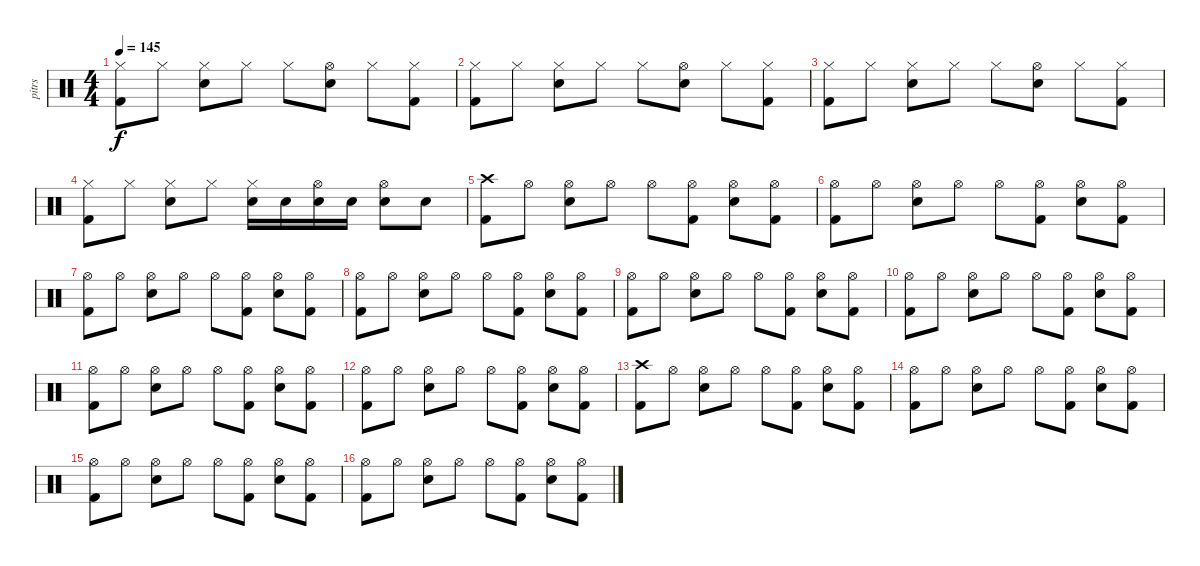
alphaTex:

\track ("pitrs" "pitrs") {instrument percussion}
\staff {score}
\articulation defaults
\ts (4 4)
\tempo 145
\clef neutral
\ks c
("Hi-Hat (closed)" "Kick (hit) 2").8{dy f} "Hi-Hat (closed)".8 ("Hi-Hat (closed)" "Snare (hit) 2").8 "Hi-Hat (closed)".8 "Hi-Hat (closed)".8 ("Hi-Hat (open)" "Snare (hit) 2").8 "Hi-Hat (closed)".8 ("Hi-Hat (closed)" "Kick (hit) 2").8 |
("Hi-Hat (closed)" "Kick (hit) 2").8 "Hi-Hat (closed)".8 ("Hi-Hat (closed)" "Snare (hit) 2").8 "Hi-Hat (closed)".8 "Hi-Hat (closed)".8 ("Hi-Hat (open)" "Snare (hit) 2").8 "Hi-Hat (closed)".8 ("Hi-Hat (closed)" "Kick (hit) 2").8 |
("Hi-Hat (closed)" "Kick (hit) 2").8 "Hi-Hat (closed)".8 ("Hi-Hat (closed)" "Snare (hit) 2").8 "Hi-Hat (closed)".8 "Hi-Hat (closed)".8 ("Hi-Hat (open)" "Snare (hit) 2").8 "Hi-Hat (closed)".8 ("Hi-Hat (closed)" "Kick (hit) 2").8 |
("Hi-Hat (closed)" "Kick (hit) 2").8 "Hi-Hat (closed)".8 ("Hi-Hat (closed)" "Snare (hit) 2").8 "Hi-Hat (closed)".8 ("Hi-Hat (closed)" "Snare (hit) 2").16 "Snare (hit) 2".16 ("Hi-Hat (open)" "Snare (hit) 2").16 "Snare (hit) 2".16 ("Hi-Hat (open)" "Snare (hit) 2").8 "Snare (hit) 2".8 |
("Crash high (hit)" "Kick (hit) 2").8 "Hi-Hat (open)".8 ("Hi-Hat (open)" "Snare (hit) 2").8 "Hi-Hat (open)".8 "Hi-Hat (open)".8 ("Hi-Hat (open)" "Kick (hit) 2").8 ("Hi-Hat (open)" "Snare (hit) 2").8 ("Hi-Hat (open)" "Kick (hit) 2").8 |
("Hi-Hat (open)" "Kick (hit) 2").8 "Hi-Hat (open)".8 ("Hi-Hat (open)" "Snare (hit) 2").8 "Hi-Hat (open)".8 "Hi-Hat (open)".8 ("Hi-Hat (open)" "Kick (hit) 2").8 ("Hi-Hat (open)" "Snare (hit) 2").8 ("Hi-Hat (open)" "Kick (hit) 2").8 |
("Hi-Hat (open)" "Kick (hit) 2").8 "Hi-Hat (open)".8 ("Hi-Hat (open)" "Snare (hit) 2").8 "Hi-Hat (open)".8 "Hi-Hat (open)".8 ("Hi-Hat (open)" "Kick (hit) 2").8 ("Hi-Hat (open)" "Snare (hit) 2").8 ("Hi-Hat (open)" "Kick (hit) 2").8 |
("Hi-Hat (open)" "Kick (hit) 2").8 "Hi-Hat (open)".8 ("Hi-Hat (open)" "Snare (hit) 2").8 "Hi-Hat (open)".8 "Hi-Hat (open)".8 ("Hi-Hat (open)" "Kick (hit) 2").8 ("Hi-Hat (open)" "Snare (hit) 2").8 ("Hi-Hat (open)" "Kick (hit) 2").8 |
("Hi-Hat (open)" "Kick (hit) 2").8 "Hi-Hat (open)".8 ("Hi-Hat (open)" "Snare (hit) 2").8 "Hi-Hat (open)".8 "Hi-Hat (open)".8 ("Hi-Hat (open)" "Kick (hit) 2").8 ("Hi-Hat (open)" "Snare (hit) 2").8 ("Hi-Hat (open)" "Kick (hit) 2").8 |
("Hi-Hat (open)" "Kick (hit) 2").8 "Hi-Hat (open)".8 ("Hi-Hat (open)" "Snare (hit) 2").8 "Hi-Hat (open)".8 "Hi-Hat (open)".8 ("Hi-Hat (open)" "Kick (hit) 2").8 ("Hi-Hat (open)" "Snare (hit) 2").8 ("Hi-Hat (open)" "Kick (hit) 2").8 |
("Hi-Hat (open)" "Kick (hit) 2").8 "Hi-Hat (open)".8 ("Hi-Hat (open)" "Snare (hit) 2").8 "Hi-Hat (open)".8 "Hi-Hat (open)".8 ("Hi-Hat (open)" "Kick (hit) 2").8 ("Hi-Hat (open)" "Snare (hit) 2").8 ("Hi-Hat (open)" "Kick (hit) 2").8 |
("Hi-Hat (open)" "Kick (hit) 2").8 "Hi-Hat (open)".8 ("Hi-Hat (open)" "Snare (hit) 2").8 "Hi-Hat (open)".8 "Hi-Hat (open)".8 ("Hi-Hat (open)" "Kick (hit) 2").8 ("Hi-Hat (open)" "Snare (hit) 2").8 ("Hi-Hat (open)" "Kick (hit) 2").8 |
("Crash high (hit)" "Kick (hit) 2").8 "Hi-Hat (open)".8 ("Hi-Hat (open)" "Snare (hit) 2").8 "Hi-Hat (open)".8 "Hi-Hat (open)".8 ("Hi-Hat (open)" "Kick (hit) 2").8 ("Hi-Hat (open)" "Snare (hit) 2").8 ("Hi-Hat (open)" "Kick (hit) 2").8 |
("Hi-Hat (open)" "Kick (hit) 2").8 "Hi-Hat (open)".8 ("Hi-Hat (open)" "Snare (hit) 2").8 "Hi-Hat (open)".8 "Hi-Hat (open)".8 ("Hi-Hat (open)" "Kick (hit) 2").8 ("Hi-Hat (open)" "Snare (hit) 2").8 ("Hi-Hat (open)" "Kick (hit) 2").8 |
("Hi-Hat (open)" "Kick (hit) 2").8 "Hi-Hat (open)".8 ("Hi-Hat (open)" "Snare (hit) 2").8 "Hi-Hat (open)".8 "Hi-Hat (open)".8 ("Hi-Hat (open)" "Kick (hit) 2").8 ("Hi-Hat (open)" "Snare (hit) 2").8 ("Hi-Hat (open)" "Kick (hit) 2").8 |
("Hi-Hat (open)" "Kick (hit) 2").8 "Hi-Hat (open)".8 ("Hi-Hat (open)" "Snare (hit) 2").8 "Hi-Hat (open)".8 "Hi-Hat (open)".8 ("Hi-Hat (open)" "Kick (hit) 2").8 ("Hi-Hat (open)" "Snare (hit) 2").8 ("Hi-Hat (open)" "Kick (hit) 2").8
